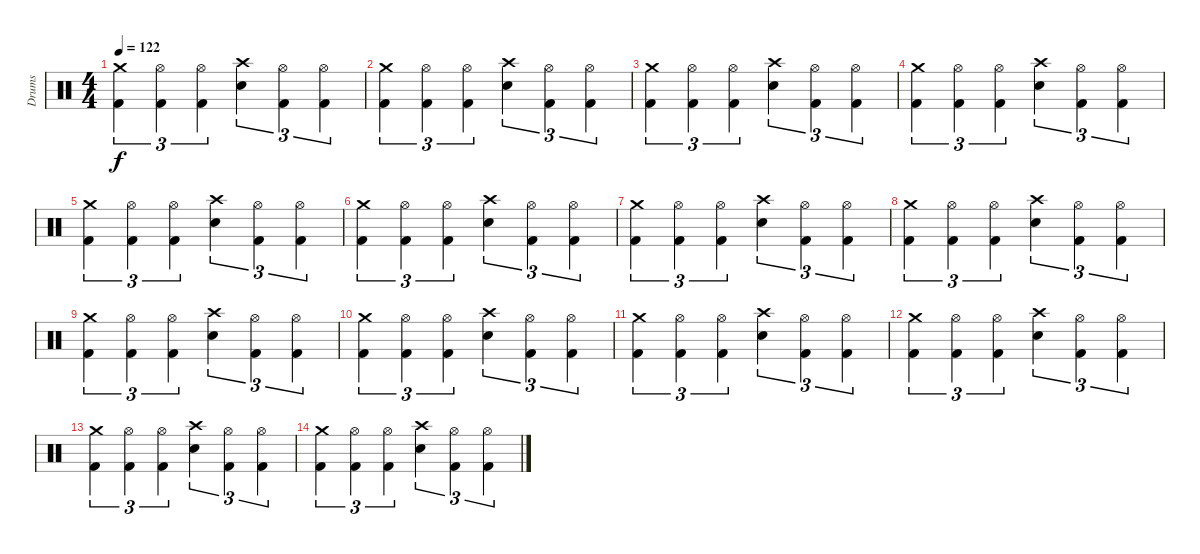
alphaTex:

\track ("Drums" "Drums") {instrument percussion}
\staff {score}
\articulation defaults
\ts (4 4)
\tempo 122
\clef neutral
\ks c
("Crash medium (hit)" "Kick (hit) 2").4{tu (3 2) dy f} ("Hi-Hat (open)" "Kick (hit) 2").4{tu (3 2)} ("Hi-Hat (open)" "Kick (hit) 2").4{tu (3 2)} ("Crash high (hit)" "Electric Snare (hit)").4{tu (3 2)} ("Hi-Hat (open)" "Kick (hit) 2").4{tu (3 2)} ("Hi-Hat (open)" "Kick (hit) 2").4{tu (3 2)} |
("Crash medium (hit)" "Kick (hit) 2").4{tu (3 2)} ("Hi-Hat (open)" "Kick (hit) 2").4{tu (3 2)} ("Hi-Hat (open)" "Kick (hit) 2").4{tu (3 2)} ("Crash high (hit)" "Electric Snare (hit)").4{tu (3 2)} ("Hi-Hat (open)" "Kick (hit) 2").4{tu (3 2)} ("Hi-Hat (open)" "Kick (hit) 2").4{tu (3 2)} |
("Crash medium (hit)" "Kick (hit) 2").4{tu (3 2)} ("Hi-Hat (open)" "Kick (hit) 2").4{tu (3 2)} ("Hi-Hat (open)" "Kick (hit) 2").4{tu (3 2)} ("Crash high (hit)" "Electric Snare (hit)").4{tu (3 2)} ("Hi-Hat (open)" "Kick (hit) 2").4{tu (3 2)} ("Hi-Hat (open)" "Kick (hit) 2").4{tu (3 2)} |
("Crash medium (hit)" "Kick (hit) 2").4{tu (3 2)} ("Hi-Hat (open)" "Kick (hit) 2").4{tu (3 2)} ("Hi-Hat (open)" "Kick (hit) 2").4{tu (3 2)} ("Crash high (hit)" "Electric Snare (hit)").4{tu (3 2)} ("Hi-Hat (open)" "Kick (hit) 2").4{tu (3 2)} ("Hi-Hat (open)" "Kick (hit) 2").4{tu (3 2)} |
("Crash medium (hit)" "Kick (hit) 2").4{tu (3 2)} ("Hi-Hat (open)" "Kick (hit) 2").4{tu (3 2)} ("Hi-Hat (open)" "Kick (hit) 2").4{tu (3 2)} ("Crash high (hit)" "Electric Snare (hit)").4{tu (3 2)} ("Hi-Hat (open)" "Kick (hit) 2").4{tu (3 2)} ("Hi-Hat (open)" "Kick (hit) 2").4{tu (3 2)} |
("Crash medium (hit)" "Kick (hit) 2").4{tu (3 2)} ("Hi-Hat (open)" "Kick (hit) 2").4{tu (3 2)} ("Hi-Hat (open)" "Kick (hit) 2").4{tu (3 2)} ("Crash high (hit)" "Electric Snare (hit)").4{tu (3 2)} ("Hi-Hat (open)" "Kick (hit) 2").4{tu (3 2)} ("Hi-Hat (open)" "Kick (hit) 2").4{tu (3 2)} |
("Crash medium (hit)" "Kick (hit) 2").4{tu (3 2)} ("Hi-Hat (open)" "Kick (hit) 2").4{tu (3 2)} ("Hi-Hat (open)" "Kick (hit) 2").4{tu (3 2)} ("Crash high (hit)" "Electric Snare (hit)").4{tu (3 2)} ("Hi-Hat (open)" "Kick (hit) 2").4{tu (3 2)} ("Hi-Hat (open)" "Kick (hit) 2").4{tu (3 2)} |
("Crash medium (hit)" "Kick (hit) 2").4{tu (3 2)} ("Hi-Hat (open)" "Kick (hit) 2").4{tu (3 2)} ("Hi-Hat (open)" "Kick (hit) 2").4{tu (3 2)} ("Crash high (hit)" "Electric Snare (hit)").4{tu (3 2)} ("Hi-Hat (open)" "Kick (hit) 2").4{tu (3 2)} ("Hi-Hat (open)" "Kick (hit) 2").4{tu (3 2)} |
("Crash medium (hit)" "Kick (hit) 2").4{tu (3 2)} ("Hi-Hat (open)" "Kick (hit) 2").4{tu (3 2)} ("Hi-Hat (open)" "Kick (hit) 2").4{tu (3 2)} ("Crash high (hit)" "Electric Snare (hit)").4{tu (3 2)} ("Hi-Hat (open)" "Kick (hit) 2").4{tu (3 2)} ("Hi-Hat (open)" "Kick (hit) 2").4{tu (3 2)} |
("Crash medium (hit)" "Kick (hit) 2").4{tu (3 2)} ("Hi-Hat (open)" "Kick (hit) 2").4{tu (3 2)} ("Hi-Hat (open)" "Kick (hit) 2").4{tu (3 2)} ("Crash high (hit)" "Electric Snare (hit)").4{tu (3 2)} ("Hi-Hat (open)" "Kick (hit) 2").4{tu (3 2)} ("Hi-Hat (open)" "Kick (hit) 2").4{tu (3 2)} |
("Crash medium (hit)" "Kick (hit) 2").4{tu (3 2)} ("Hi-Hat (open)" "Kick (hit) 2").4{tu (3 2)} ("Hi-Hat (open)" "Kick (hit) 2").4{tu (3 2)} ("Crash high (hit)" "Electric Snare (hit)").4{tu (3 2)} ("Hi-Hat (open)" "Kick (hit) 2").4{tu (3 2)} ("Hi-Hat (open)" "Kick (hit) 2").4{tu (3 2)} |
("Crash medium (hit)" "Kick (hit) 2").4{tu (3 2)} ("Hi-Hat (open)" "Kick (hit) 2").4{tu (3 2)} ("Hi-Hat (open)" "Kick (hit) 2").4{tu (3 2)} ("Crash high (hit)" "Electric Snare (hit)").4{tu (3 2)} ("Hi-Hat (open)" "Kick (hit) 2").4{tu (3 2)} ("Hi-Hat (open)" "Kick (hit) 2").4{tu (3 2)} |
("Crash medium (hit)" "Kick (hit) 2").4{tu (3 2)} ("Hi-Hat (open)" "Kick (hit) 2").4{tu (3 2)} ("Hi-Hat (open)" "Kick (hit) 2").4{tu (3 2)} ("Crash high (hit)" "Electric Snare (hit)").4{tu (3 2)} ("Hi-Hat (open)" "Kick (hit) 2").4{tu (3 2)} ("Hi-Hat (open)" "Kick (hit) 2").4{tu (3 2)} |
("Crash medium (hit)" "Kick (hit) 2").4{tu (3 2)} ("Hi-Hat (open)" "Kick (hit) 2").4{tu (3 2)} ("Hi-Hat (open)" "Kick (hit) 2").4{tu (3 2)} ("Crash high (hit)" "Electric Snare (hit)").4{tu (3 2)} ("Hi-Hat (open)" "Kick (hit) 2").4{tu (3 2)} ("Hi-Hat (open)" "Kick (hit) 2").4{tu (3 2)}
